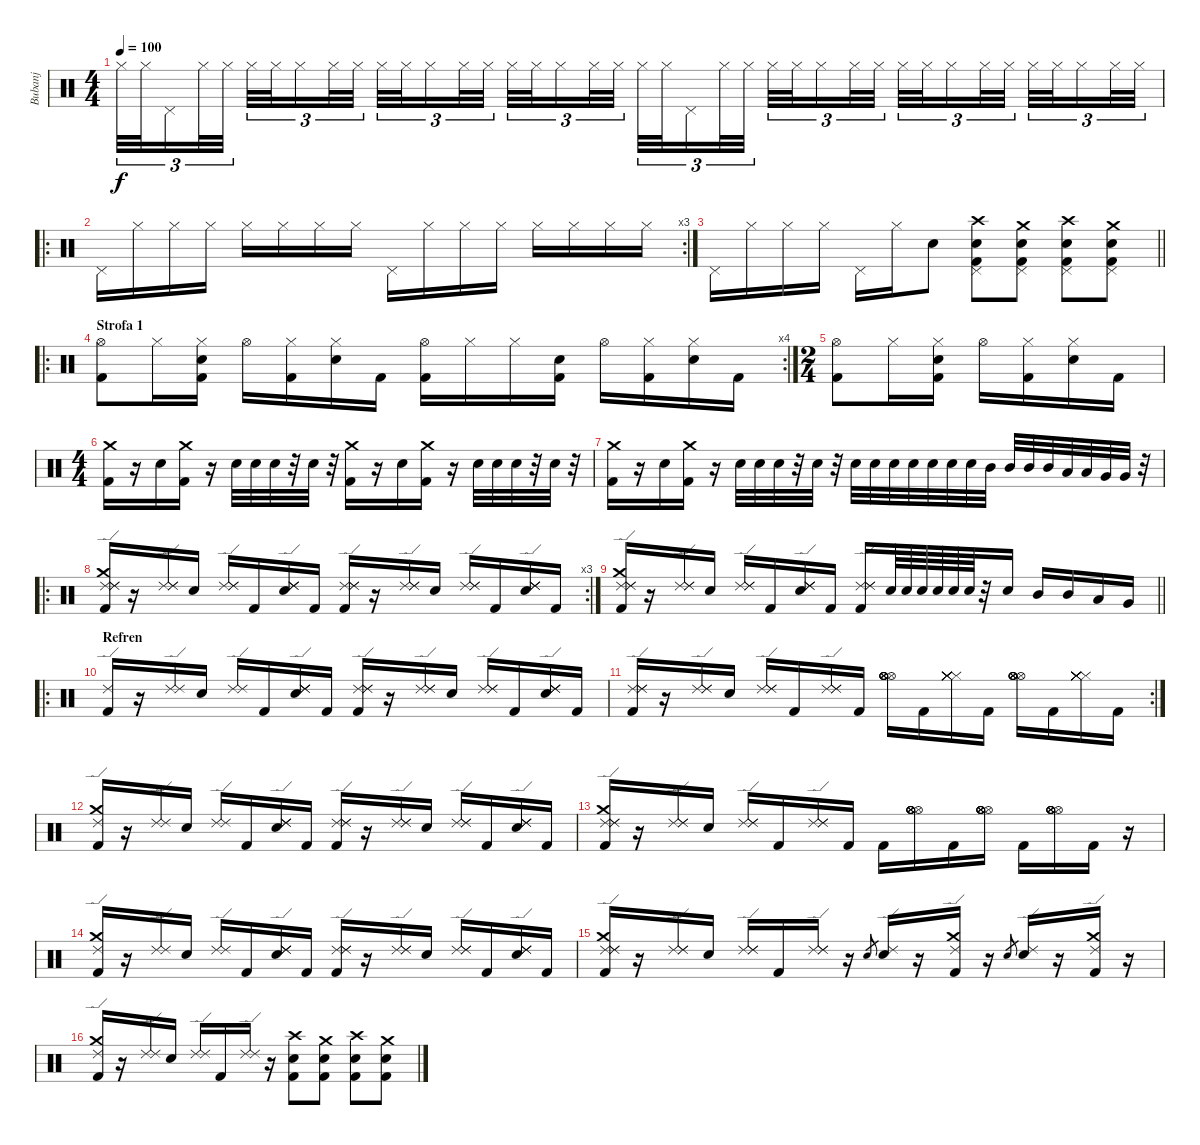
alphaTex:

\track ("Bubanj" "Bubanj") {instrument percussion}
\staff {score}
\articulation defaults
\ts (4 4)
\tempo 100
\clef neutral
\ks c "Hi-Hat (closed)".32{tu (3 2) dy f} "Hi-Hat (closed)".32{tu (3 2)} "Pedal Hi-Hat (hit)".16{tu (3 2)} "Hi-Hat (closed)".32{tu (3 2)} "Hi-Hat (closed)".32{tu (3 2) beam splitsecondary} "Hi-Hat (closed)".32{tu (3 2)} "Hi-Hat (closed)".32{tu (3 2)} "Hi-Hat (closed)".16{tu (3 2)} "Hi-Hat (closed)".32{tu (3 2)} "Hi-Hat (closed)".32{tu (3 2)} "Hi-Hat (closed)".32{tu (3 2)} "Hi-Hat (closed)".32{tu (3 2)} "Hi-Hat (closed)".16{tu (3 2)} "Hi-Hat (closed)".32{tu (3 2)} "Hi-Hat (closed)".32{tu (3 2) beam splitsecondary} "Hi-Hat (closed)".32{tu (3 2)} "Hi-Hat (closed)".32{tu (3 2)} "Hi-Hat (closed)".16{tu (3 2)} "Hi-Hat (closed)".32{tu (3 2)} "Hi-Hat (closed)".32{tu (3 2)} "Hi-Hat (closed)".32{tu (3 2)} "Hi-Hat (closed)".32{tu (3 2)} "Pedal Hi-Hat (hit)".16{tu (3 2)} "Hi-Hat (closed)".32{tu (3 2)} "Hi-Hat (closed)".32{tu (3 2) beam splitsecondary} "Hi-Hat (closed)".32{tu (3 2)} "Hi-Hat (closed)".32{tu (3 2)} "Hi-Hat (closed)".16{tu (3 2)} "Hi-Hat (closed)".32{tu (3 2)} "Hi-Hat (closed)".32{tu (3 2)} "Hi-Hat (closed)".32{tu (3 2)} "Hi-Hat (closed)".32{tu (3 2)} "Hi-Hat (closed)".16{tu (3 2)} "Hi-Hat (closed)".32{tu (3 2)} "Hi-Hat (closed)".32{tu (3 2) beam splitsecondary} "Hi-Hat (closed)".32{tu (3 2)} "Hi-Hat (closed)".32{tu (3 2)} "Hi-Hat (closed)".16{tu (3 2)} "Hi-Hat (closed)".32{tu (3 2)} "Hi-Hat (closed)".32{tu (3 2)}
|
\ro
\rc 3 "Pedal Hi-Hat (hit)".16 "Hi-Hat (closed)".16 "Hi-Hat (closed)".16 "Hi-Hat (closed)".16 "Hi-Hat (closed)".16 "Hi-Hat (closed)".16 "Hi-Hat (closed)".16 "Hi-Hat (closed)".16 "Pedal Hi-Hat (hit)".16 "Hi-Hat (closed)".16 "Hi-Hat (closed)".16 "Hi-Hat (closed)".16 "Hi-Hat (closed)".16 "Hi-Hat (closed)".16 "Hi-Hat (closed)".16 "Hi-Hat (closed)".16
|
\barLineRight lightlight "Pedal Hi-Hat (hit)".16 "Hi-Hat (closed)".16 "Hi-Hat (closed)".16 "Hi-Hat (closed)".16 "Pedal Hi-Hat (hit)".16 "Hi-Hat (closed)".16 "Snare (hit) 2".8
("Pedal Hi-Hat (hit)" "Kick (hit) 2" "Snare (hit) 2" "Crash high (hit)").8 ("Pedal Hi-Hat (hit)" "Kick (hit) 2" "Snare (hit) 2" "Crash medium (hit)").8 ("Pedal Hi-Hat (hit)" "Kick (hit) 2" "Snare (hit) 2" "Crash high (hit)").8 ("Pedal Hi-Hat (hit)" "Kick (hit) 2" "Snare (hit) 2" "Crash medium (hit)").8 |
\ro
\rc 4
\section ("" "Strofa 1")
("Hi-Hat (open)" "Kick (hit) 2").8 "Hi-Hat (closed)".16 ("Hi-Hat (closed)" "Snare (hit) 2" "Kick (hit) 2").16 "Hi-Hat (open)".16 ("Hi-Hat (closed)" "Kick (hit) 2").16 ("Hi-Hat (closed)" "Snare (hit) 2").16 "Kick (hit) 2".16 ("Hi-Hat (open)" "Kick (hit) 2").16 "Hi-Hat (closed)".16 "Hi-Hat (closed)".16 ("Snare (hit) 2" "Kick (hit) 2").16 "Hi-Hat (open)".16 ("Hi-Hat (closed)" "Kick (hit) 2").16 ("Hi-Hat (closed)" "Snare (hit) 2").16 "Kick (hit) 2".16 |
\ts (2 4)
("Hi-Hat (open)" "Kick (hit) 2").8 "Hi-Hat (closed)".16 ("Hi-Hat (closed)" "Snare (hit) 2" "Kick (hit) 2").16 "Hi-Hat (open)".16 ("Hi-Hat (closed)" "Kick (hit) 2").16 ("Hi-Hat (closed)" "Snare (hit) 2").16 "Kick (hit) 2".16 |
\ts (4 4)
("Kick (hit) 2" "Crash medium (hit)").16 r.16 "Snare (hit) 2".16 ("Kick (hit) 2" "Crash medium (hit)").16 r.16 "Snare (hit) 2".32 "Snare (hit) 2".32 "Snare (hit) 2".32 r.32 "Snare (hit) 2".32 r.32 ("Kick (hit) 2" "Crash medium (hit)").16 r.16 "Snare (hit) 2".16 ("Kick (hit) 2" "Crash medium (hit)").16 r.16 "Snare (hit) 2".32 "Snare (hit) 2".32 "Snare (hit) 2".32 r.32 "Snare (hit) 2".32 r.32 |
("Kick (hit) 2" "Crash medium (hit)").16 r.16 "Snare (hit) 2".16 ("Kick (hit) 2" "Crash medium (hit)").16 r.16 "Snare (hit) 2".32 "Snare (hit) 2".32 "Snare (hit) 2".32 r.32 "Snare (hit) 2".32 r.32 "Snare (hit) 2".32 "Snare (hit) 2".32 "Snare (hit) 2".32 "Snare (hit) 2".32 "Snare (hit) 2".32 "Snare (hit) 2".32 "Snare (hit) 2".32 "Mid Tom (hit)".32 "Mid Tom (hit)".32 "Mid Tom (hit)".32 "Mid Tom (hit)".32 "Low Tom (hit)".32 "Low Tom (hit)".32 "Very Low Tom (hit)".32 "Very Low Tom (hit)".32 r.32 |
\ro
\rc 3
("Crash medium (hit)" "Kick (hit) 2" "Ride (edge) 2" "Ride (edge) 2" "Ride (edge) 2").16 r.16 ("Ride (edge) 2" "Ride (edge) 2" "Ride (edge) 2").16 "Snare (hit) 2".16 ("Ride (edge) 2" "Ride (edge) 2" "Ride (edge) 2").16 "Kick (hit) 2".16 ("Snare (hit) 2" "Ride (edge) 2" "Ride (edge) 2" "Ride (edge) 2").16 "Kick (hit) 2".16 ("Kick (hit) 2" "Ride (edge) 2" "Ride (edge) 2" "Ride (edge) 2").16 r.16 ("Ride (edge) 2" "Ride (edge) 2" "Ride (edge) 2").16 "Snare (hit) 2".16 ("Ride (edge) 2" "Ride (edge) 2" "Ride (edge) 2").16 "Kick (hit) 2".16 ("Snare (hit) 2" "Ride (edge) 2" "Ride (edge) 2" "Ride (edge) 2").16 "Kick (hit) 2".16 |
\barLineRight lightlight
("Crash medium (hit)" "Kick (hit) 2" "Ride (edge) 2" "Ride (edge) 2" "Ride (edge) 2").16 r.16 ("Ride (edge) 2" "Ride (edge) 2" "Ride (edge) 2").16 "Snare (hit) 2".16 ("Ride (edge) 2" "Ride (edge) 2" "Ride (edge) 2").16 "Kick (hit) 2".16 ("Snare (hit) 2" "Ride (edge) 2" "Ride (edge) 2" "Ride (edge) 2").16 "Kick (hit) 2".16 ("Kick (hit) 2" "Ride (edge) 2" "Ride (edge) 2" "Ride (edge) 2").16 "Snare (hit) 2".64 "Snare (hit) 2".64 "Snare (hit) 2".64 "Snare (hit) 2".64 "Snare (hit) 2".64 "Snare (hit) 2".64 r.32 "Snare (hit) 2".16 "Mid Tom (hit)".16 "Mid Tom (hit)".16 "Low Tom (hit)".16 "Very Low Tom (hit)".16 |
\ro
\section ("" "Refren")
("Kick (hit) 2" "Ride (edge) 2").16 r.16 ("Ride (edge) 2" "Ride (edge) 2").16 "Snare (hit) 2".16 ("Ride (edge) 2" "Ride (edge) 2").16 "Kick (hit) 2".16 ("Snare (hit) 2" "Ride (edge) 2" "Ride (edge) 2" "Ride (edge) 2").16 "Kick (hit) 2".16 ("Kick (hit) 2" "Ride (edge) 2" "Ride (edge) 2" "Ride (edge) 2").16 r.16 ("Ride (edge) 2" "Ride (edge) 2" "Ride (edge) 2").16 "Snare (hit) 2".16 ("Ride (edge) 2" "Ride (edge) 2" "Ride (edge) 2").16 "Kick (hit) 2".16 ("Snare (hit) 2" "Ride (edge) 2" "Ride (edge) 2" "Ride (edge) 2").16 "Kick (hit) 2".16 |
\rc 2
("Kick (hit) 2" "Ride (edge) 2" "Ride (edge) 2" "Ride (edge) 2").16 r.16 ("Ride (edge) 2" "Ride (edge) 2" "Ride (edge) 2").16 "Snare (hit) 2".16 ("Ride (edge) 2" "Ride (edge) 2" "Ride (edge) 2").16 "Kick (hit) 2".16 ("Ride (edge) 2" "Ride (edge) 2" "Ride (edge) 2").16 "Kick (hit) 2".16 ("Hi-Hat (open)" "Hi-Hat (open)" "Hi-Hat (open)" "Hi-Hat (open)" "Hi-Hat (open)" "Hi-Hat (open)").16 "Kick (hit) 2".16 ("Hi-Hat (closed)" "Hi-Hat (closed)" "Hi-Hat (closed)" "Hi-Hat (closed)" "Hi-Hat (closed)" "Hi-Hat (closed)").16 "Kick (hit) 2".16 ("Hi-Hat (open)" "Hi-Hat (open)" "Hi-Hat (open)" "Hi-Hat (open)" "Hi-Hat (open)" "Hi-Hat (open)").16 "Kick (hit) 2".16 ("Hi-Hat (closed)" "Hi-Hat (closed)" "Hi-Hat (closed)" "Hi-Hat (closed)" "Hi-Hat (closed)" "Hi-Hat (closed)").16 "Kick (hit) 2".16 |
("Crash medium (hit)" "Kick (hit) 2" "Ride (edge) 2").16 r.16 ("Ride (edge) 2" "Ride (edge) 2").16 "Snare (hit) 2".16 ("Ride (edge) 2" "Ride (edge) 2").16 "Kick (hit) 2".16 ("Snare (hit) 2" "Ride (edge) 2" "Ride (edge) 2" "Ride (edge) 2").16 "Kick (hit) 2".16 ("Kick (hit) 2" "Ride (edge) 2" "Ride (edge) 2" "Ride (edge) 2").16 r.16 ("Ride (edge) 2" "Ride (edge) 2" "Ride (edge) 2").16 "Snare (hit) 2".16 ("Ride (edge) 2" "Ride (edge) 2" "Ride (edge) 2").16 "Kick (hit) 2".16 ("Snare (hit) 2" "Ride (edge) 2" "Ride (edge) 2" "Ride (edge) 2").16 "Kick (hit) 2".16 |
("Crash medium (hit)" "Kick (hit) 2" "Ride (edge) 2" "Ride (edge) 2" "Ride (edge) 2").16 r.16 ("Ride (edge) 2" "Ride (edge) 2" "Ride (edge) 2").16 "Snare (hit) 2".16 ("Ride (edge) 2" "Ride (edge) 2" "Ride (edge) 2").16 "Kick (hit) 2".16 ("Ride (edge) 2" "Ride (edge) 2" "Ride (edge) 2").16 "Kick (hit) 2".16 "Kick (hit) 2".16 ("Hi-Hat (open)" "Hi-Hat (open)" "Hi-Hat (open)" "Hi-Hat (open)" "Hi-Hat (open)" "Hi-Hat (open)").16 "Kick (hit) 2".16 ("Hi-Hat (open)" "Hi-Hat (open)" "Hi-Hat (open)" "Hi-Hat (open)" "Hi-Hat (open)" "Hi-Hat (open)").16 "Kick (hit) 2".16 ("Hi-Hat (open)" "Hi-Hat (open)" "Hi-Hat (open)" "Hi-Hat (open)" "Hi-Hat (open)" "Hi-Hat (open)").16 "Kick (hit) 2".16 r.16 |
("Crash medium (hit)" "Kick (hit) 2" "Ride (edge) 2").16 r.16 ("Ride (edge) 2" "Ride (edge) 2").16 "Snare (hit) 2".16 ("Ride (edge) 2" "Ride (edge) 2").16 "Kick (hit) 2".16 ("Snare (hit) 2" "Ride (edge) 2" "Ride (edge) 2" "Ride (edge) 2").16 "Kick (hit) 2".16 ("Kick (hit) 2" "Ride (edge) 2" "Ride (edge) 2" "Ride (edge) 2").16 r.16 ("Ride (edge) 2" "Ride (edge) 2" "Ride (edge) 2").16 "Snare (hit) 2".16 ("Ride (edge) 2" "Ride (edge) 2" "Ride (edge) 2").16 "Kick (hit) 2".16 ("Snare (hit) 2" "Ride (edge) 2" "Ride (edge) 2" "Ride (edge) 2").16 "Kick (hit) 2".16 |
("Crash medium (hit)" "Kick (hit) 2" "Ride (edge) 2" "Ride (edge) 2" "Ride (edge) 2").16 r.16 ("Ride (edge) 2" "Ride (edge) 2" "Ride (edge) 2").16 "Snare (hit) 2".16 ("Ride (edge) 2" "Ride (edge) 2" "Ride (edge) 2").16 "Kick (hit) 2".16 ("Ride (edge) 2" "Ride (edge) 2" "Ride (edge) 2").16 r.16 "Snare (hit) 2".8{gr} ("Snare (hit) 2" "Ride (edge) 2").16 r.16 ("Crash medium (hit)" "Kick (hit) 2" "Ride (edge) 2").16 r.16 "Snare (hit) 2".8{gr} ("Snare (hit) 2" "Ride (edge) 2").16 r.16 ("Crash medium (hit)" "Kick (hit) 2" "Ride (edge) 2").16 r.16 |
("Crash medium (hit)" "Kick (hit) 2" "Ride (edge) 2").16 r.16 ("Ride (edge) 2" "Ride (edge) 2").16 "Snare (hit) 2".16 ("Ride (edge) 2" "Ride (edge) 2").16 "Kick (hit) 2".16 ("Ride (edge) 2" "Ride (edge) 2").16 r.16 ("Kick (hit) 2" "Snare (hit) 2" "Crash high (hit)").8 ("Kick (hit) 2" "Snare (hit) 2" "Crash medium (hit)").8 ("Kick (hit) 2" "Snare (hit) 2" "Crash high (hit)").8 ("Kick (hit) 2" "Snare (hit) 2" "Crash medium (hit)").8
